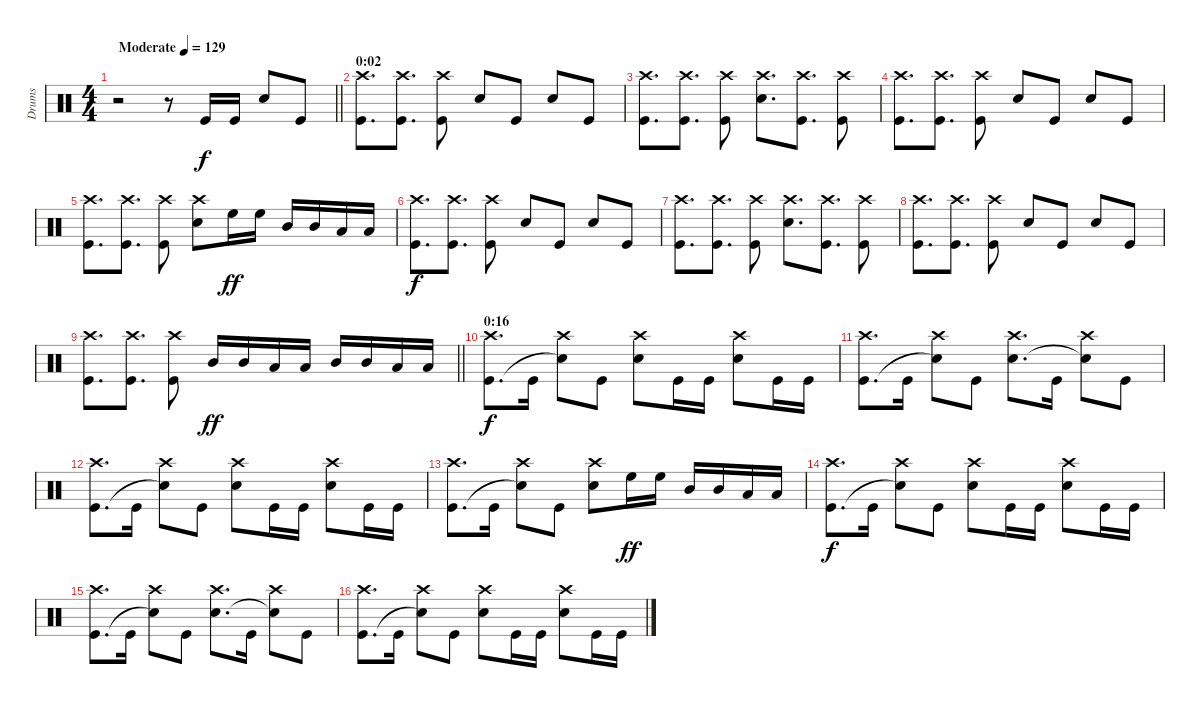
\track ("Drums" "Drums") {instrument percussion}
\staff {score}
\articulation defaults
\ts (4 4)
\tempo (129 "Moderate")
\clef neutral
\barLineRight lightlight
\ks c
r.2{dy f} r.8 "Kick (hit)".16 "Kick (hit)".16 "Snare (hit) 2".8 "Kick (hit)".8 |
\section ("" "0:02")
("Crash high (hit)" "Kick (hit)").8{d} ("Crash high (hit)" "Kick (hit)").8{d} ("Crash high (hit)" "Kick (hit)").8 "Snare (hit) 2".8 "Kick (hit)".8 "Snare (hit) 2".8 "Kick (hit)".8 |
("Crash high (hit)" "Kick (hit)").8{d} ("Crash high (hit)" "Kick (hit)").8{d} ("Crash high (hit)" "Kick (hit)").8 ("Crash high (hit)" "Snare (hit) 2").8{d} ("Crash high (hit)" "Kick (hit)").8{d} ("Crash high (hit)" "Kick (hit)").8 |
("Crash high (hit)" "Kick (hit)").8{d} ("Crash high (hit)" "Kick (hit)").8{d} ("Crash high (hit)" "Kick (hit)").8 "Snare (hit) 2".8 "Kick (hit)".8 "Snare (hit) 2".8 "Kick (hit)".8 |
("Crash high (hit)" "Kick (hit)").8{d} ("Crash high (hit)" "Kick (hit)").8{d} ("Crash high (hit)" "Kick (hit)").8 ("Crash high (hit)" "Snare (hit) 2").8 "High Floor Tom (hit)".16{dy ff} "High Floor Tom (hit)".16 "Mid Tom (hit)".16 "Mid Tom (hit)".16 "Low Tom (hit)".16 "Low Tom (hit)".16 |
("Crash high (hit)" "Kick (hit)").8{d dy f} ("Crash high (hit)" "Kick (hit)").8{d} ("Crash high (hit)" "Kick (hit)").8 "Snare (hit) 2".8 "Kick (hit)".8 "Snare (hit) 2".8 "Kick (hit)".8 |
("Crash high (hit)" "Kick (hit)").8{d} ("Crash high (hit)" "Kick (hit)").8{d} ("Crash high (hit)" "Kick (hit)").8 ("Crash high (hit)" "Snare (hit) 2").8{d} ("Crash high (hit)" "Kick (hit)").8{d} ("Crash high (hit)" "Kick (hit)").8 |
("Crash high (hit)" "Kick (hit)").8{d} ("Crash high (hit)" "Kick (hit)").8{d} ("Crash high (hit)" "Kick (hit)").8 "Snare (hit) 2".8 "Kick (hit)".8 "Snare (hit) 2".8 "Kick (hit)".8 |
\barLineRight lightlight
("Crash high (hit)" "Kick (hit)").8{d} ("Crash high (hit)" "Kick (hit)").8{d} ("Crash high (hit)" "Kick (hit)").8 "Mid Tom (hit)".16{dy ff} "Mid Tom (hit)".16 "Low Tom (hit)".16 "Low Tom (hit)".16 "Mid Tom (hit)".16 "Mid Tom (hit)".16 "Low Tom (hit)".16 "Low Tom (hit)".16 |
\section ("" "0:16")
("Crash high (hit)" "Kick (hit)").8{d dy f} "Kick (hit)".16 ("Crash high (hit)" "Snare (hit)"{t}).8 "Kick (hit)".8 ("Crash high (hit)" "Snare (hit) 2").8 "Kick (hit)".16 "Kick (hit)".16 ("Crash high (hit)" "Snare (hit) 2").8 "Kick (hit)".16 "Kick (hit)".16 |
("Crash high (hit)" "Kick (hit)").8{d} "Kick (hit)".16 ("Crash high (hit)" "Snare (hit)"{t}).8 "Kick (hit)".8 ("Crash high (hit)" "Snare (hit) 2").8{d} "Kick (hit)".16 ("Crash high (hit)" "Snare (hit)"{t}).8 "Kick (hit)".8 |
("Crash high (hit)" "Kick (hit)").8{d} "Kick (hit)".16 ("Crash high (hit)" "Snare (hit)"{t}).8 "Kick (hit)".8 ("Crash high (hit)" "Snare (hit) 2").8 "Kick (hit)".16 "Kick (hit)".16 ("Crash high (hit)" "Snare (hit) 2").8 "Kick (hit)".16 "Kick (hit)".16 |
("Crash high (hit)" "Kick (hit)").8{d} "Kick (hit)".16 ("Crash high (hit)" "Snare (hit)"{t}).8 "Kick (hit)".8 ("Crash high (hit)" "Snare (hit) 2").8 "High Floor Tom (hit)".16{dy ff} "High Floor Tom (hit)".16 "Mid Tom (hit)".16 "Mid Tom (hit)".16 "Low Tom (hit)".16 "Low Tom (hit)".16 |
("Crash high (hit)" "Kick (hit)").8{d dy f} "Kick (hit)".16 ("Crash high (hit)" "Snare (hit)"{t}).8 "Kick (hit)".8 ("Crash high (hit)" "Snare (hit) 2").8 "Kick (hit)".16 "Kick (hit)".16 ("Crash high (hit)" "Snare (hit) 2").8 "Kick (hit)".16 "Kick (hit)".16 |
("Crash high (hit)" "Kick (hit)").8{d} "Kick (hit)".16 ("Crash high (hit)" "Snare (hit)"{t}).8 "Kick (hit)".8 ("Crash high (hit)" "Snare (hit) 2").8{d} "Kick (hit)".16 ("Crash high (hit)" "Snare (hit)"{t}).8 "Kick (hit)".8 |
("Crash high (hit)" "Kick (hit)").8{d} "Kick (hit)".16 ("Crash high (hit)" "Snare (hit)"{t}).8 "Kick (hit)".8 ("Crash high (hit)" "Snare (hit) 2").8 "Kick (hit)".16 "Kick (hit)".16 ("Crash high (hit)" "Snare (hit) 2").8 "Kick (hit)".16 "Kick (hit)".16
